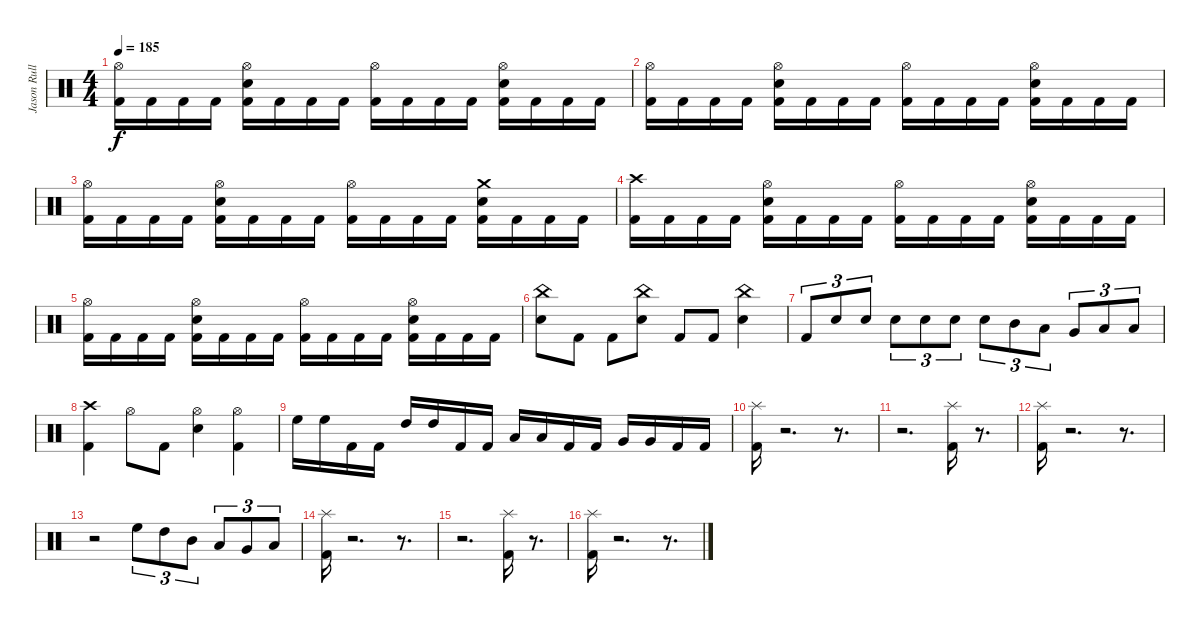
\track ("Jason Rullo" "Jason Rull") {instrument percussion}
\staff {score}
\articulation defaults
\ts (4 4)
\tempo 185
\clef neutral
\ks c
("Hi-Hat (open)" "Kick (hit) 2").16{dy f} "Kick (hit) 2".16 "Kick (hit) 2".16 "Kick (hit) 2".16 ("Hi-Hat (open)" "Snare (hit) 2" "Kick (hit) 2").16 "Kick (hit) 2".16 "Kick (hit) 2".16 "Kick (hit) 2".16 ("Hi-Hat (open)" "Kick (hit) 2").16 "Kick (hit) 2".16 "Kick (hit) 2".16 "Kick (hit) 2".16 ("Hi-Hat (open)" "Snare (hit) 2" "Kick (hit) 2").16 "Kick (hit) 2".16 "Kick (hit) 2".16 "Kick (hit) 2".16 |
("Hi-Hat (open)" "Kick (hit) 2").16 "Kick (hit) 2".16 "Kick (hit) 2".16 "Kick (hit) 2".16 ("Hi-Hat (open)" "Snare (hit) 2" "Kick (hit) 2").16 "Kick (hit) 2".16 "Kick (hit) 2".16 "Kick (hit) 2".16 ("Hi-Hat (open)" "Kick (hit) 2").16 "Kick (hit) 2".16 "Kick (hit) 2".16 "Kick (hit) 2".16 ("Hi-Hat (open)" "Snare (hit) 2" "Kick (hit) 2").16 "Kick (hit) 2".16 "Kick (hit) 2".16 "Kick (hit) 2".16 |
("Hi-Hat (open)" "Kick (hit) 2").16 "Kick (hit) 2".16 "Kick (hit) 2".16 "Kick (hit) 2".16 ("Hi-Hat (open)" "Snare (hit) 2" "Kick (hit) 2").16 "Kick (hit) 2".16 "Kick (hit) 2".16 "Kick (hit) 2".16 ("Hi-Hat (open)" "Kick (hit) 2").16 "Kick (hit) 2".16 "Kick (hit) 2".16 "Kick (hit) 2".16 ("Crash medium (hit)" "Snare (hit) 2" "Kick (hit) 2").16 "Kick (hit) 2".16 "Kick (hit) 2".16 "Kick (hit) 2".16 |
("Crash high (hit)" "Kick (hit) 2").16 "Kick (hit) 2".16 "Kick (hit) 2".16 "Kick (hit) 2".16 ("Hi-Hat (open)" "Snare (hit) 2" "Kick (hit) 2").16 "Kick (hit) 2".16 "Kick (hit) 2".16 "Kick (hit) 2".16 ("Hi-Hat (open)" "Kick (hit) 2").16 "Kick (hit) 2".16 "Kick (hit) 2".16 "Kick (hit) 2".16 ("Hi-Hat (open)" "Snare (hit) 2" "Kick (hit) 2").16 "Kick (hit) 2".16 "Kick (hit) 2".16 "Kick (hit) 2".16 |
("Hi-Hat (open)" "Kick (hit) 2").16 "Kick (hit) 2".16 "Kick (hit) 2".16 "Kick (hit) 2".16 ("Hi-Hat (open)" "Snare (hit) 2" "Kick (hit) 2").16 "Kick (hit) 2".16 "Kick (hit) 2".16 "Kick (hit) 2".16 ("Hi-Hat (open)" "Kick (hit) 2").16 "Kick (hit) 2".16 "Kick (hit) 2".16 "Kick (hit) 2".16 ("Hi-Hat (open)" "Snare (hit) 2" "Kick (hit) 2").16 "Kick (hit) 2".16 "Kick (hit) 2".16 "Kick (hit) 2".16 |
("China (hit)" "Snare (hit) 2").8 "Kick (hit) 2".8 "Kick (hit) 2".8 ("China (hit)" "Snare (hit) 2").8 "Kick (hit) 2".8 "Kick (hit) 2".8 ("China (hit)" "Snare (hit) 2").4 |
"Kick (hit) 2".8{tu (3 2)} "Snare (hit) 2".8{tu (3 2)} "Snare (hit) 2".8{tu (3 2)} "Snare (hit) 2".8{tu (3 2)} "Snare (hit) 2".8{tu (3 2)} "Snare (hit) 2".8{tu (3 2)} "Snare (hit) 2".8{tu (3 2)} "Mid Tom (hit)".8{tu (3 2)} "Low Tom (hit)".8{tu (3 2)} "Very Low Tom (hit)".8{tu (3 2)} "Low Floor Tom (hit)".8{tu (3 2)} "Low Floor Tom (hit)".8{tu (3 2)} |
("Crash high (hit)" "Kick (hit) 2").4 "Hi-Hat (open)".8 "Kick (hit) 2".8 ("Hi-Hat (open)" "Snare (hit) 2").4 ("Hi-Hat (open)" "Kick (hit) 2").4 |
"High Floor Tom (hit)".16 "High Floor Tom (hit)".16 "Kick (hit) 2".16 "Kick (hit) 2".16 "High Tom (hit)".16 "High Tom (hit)".16 "Kick (hit) 2".16 "Kick (hit) 2".16 "Low Tom (hit)".16 "Low Tom (hit)".16 "Kick (hit) 2".16 "Kick (hit) 2".16 "Very Low Tom (hit)".16 "Very Low Tom (hit)".16 "Kick (hit) 2".16 "Kick (hit) 2".16 |
("Splash (hit)" "Kick (hit) 2").16 r.2{d} r.8{d} |
r.2{d} ("Splash (hit)" "Kick (hit) 2").16 r.8{d} |
("Splash (hit)" "Kick (hit) 2").16 r.2{d} r.8{d} |
r.2 "High Floor Tom (hit)".8{tu (3 2)} "High Tom (hit)".8{tu (3 2)} "Mid Tom (hit)".8{tu (3 2)} "Low Tom (hit)".8{tu (3 2)} "Very Low Tom (hit)".8{tu (3 2)} "Low Floor Tom (hit)".8{tu (3 2)} |
("Splash (hit)" "Kick (hit) 2").16 r.2{d} r.8{d} |
r.2{d} ("Splash (hit)" "Kick (hit) 2").16 r.8{d} |
("Splash (hit)" "Kick (hit) 2").16 r.2{d} r.8{d}
